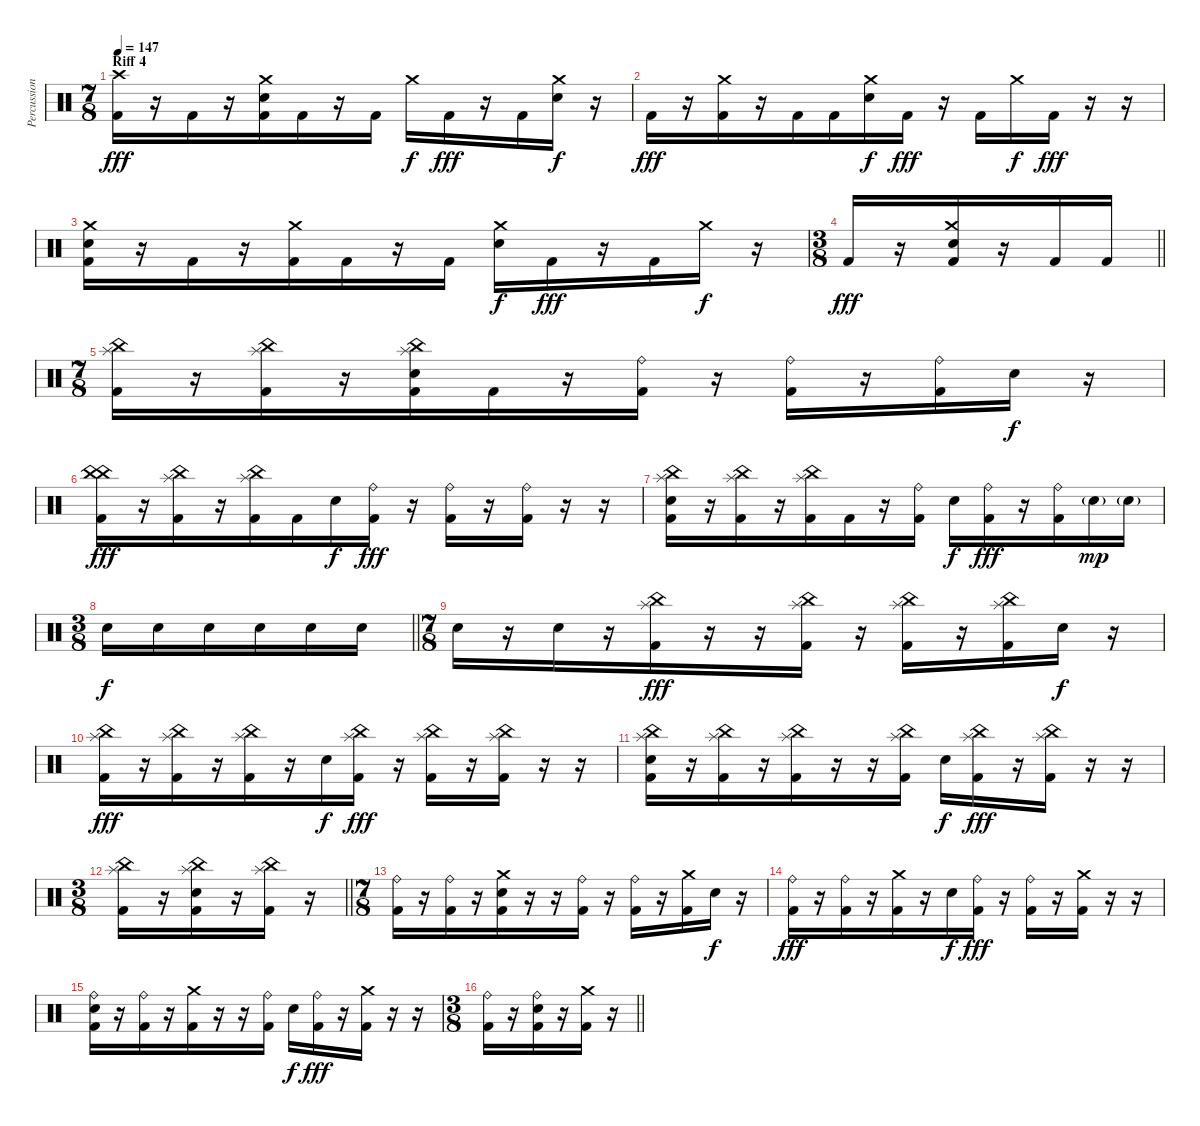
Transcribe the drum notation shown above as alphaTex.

\track ("Percussion" "Percussion") {instrument percussion}
\staff {score}
\articulation defaults
\ts (7 8)
\section ("" "Riff 4")
\tempo 147
\clef neutral
\ks c
("Crash high (hit)" "Kick (hit) 2").16{dy fff} r.16 "Kick (hit) 2".16 r.16 ("Crash medium (hit)" "Electric Snare (hit)" "Kick (hit) 2").16 "Kick (hit) 2".16 r.16 "Kick (hit) 2".16 "Crash medium (hit)".16{dy f} "Kick (hit) 2".16{dy fff} r.16 "Kick (hit) 2".16 ("Crash medium (hit)" "Electric Snare (hit)").16{dy f} r.16 |
"Kick (hit) 2".16{dy fff} r.16 ("Crash medium (hit)" "Kick (hit) 2").16 r.16 "Kick (hit) 2".16 "Kick (hit) 2".16 ("Crash medium (hit)" "Electric Snare (hit)").16{dy f} "Kick (hit) 2".16{dy fff} r.16 "Kick (hit) 2".16 "Crash medium (hit)".16{dy f} "Kick (hit) 2".16{dy fff} r.16 r.16 |
("Crash medium (hit)" "Electric Snare (hit)" "Kick (hit) 2").16 r.16 "Kick (hit) 2".16 r.16 ("Crash medium (hit)" "Kick (hit) 2").16 "Kick (hit) 2".16 r.16 "Kick (hit) 2".16 ("Crash medium (hit)" "Electric Snare (hit)").16{dy f} "Kick (hit) 2".16{dy fff} r.16 "Kick (hit) 2".16 "Crash medium (hit)".16{dy f} r.16 |
\ts (3 8)
\barLineRight lightlight "Kick (hit) 2".16{dy fff}
r.16 ("Crash medium (hit)" "Electric Snare (hit)" "Kick (hit) 2").16 r.16 "Kick (hit) 2".16 "Kick (hit) 2".16 |
\ts (7 8)
("Splash (hit)" "China (hit)" "Kick (hit) 2").16 r.16 ("Splash (hit)" "China (hit)" "Kick (hit) 2").16 r.16 ("Splash (hit)" "China (hit)" "Electric Snare (hit)" "Kick (hit) 2").16 "Kick (hit) 2".16 r.16 ("Ride (bell)" "Kick (hit) 2").16 r.16 ("Ride (bell)" "Kick (hit) 2").16 r.16 ("Ride (bell)" "Kick (hit) 2").16 "Electric Snare (hit)".16{dy f} r.16 |
("China (hit)" "China (hit)" "Kick (hit) 2").16{dy fff} r.16 ("Splash (hit)" "China (hit)" "Kick (hit) 2").16 r.16 ("Splash (hit)" "China (hit)" "Kick (hit) 2").16 "Kick (hit) 2".16 "Electric Snare (hit)".16{dy f} ("Ride (bell)" "Kick (hit) 2").16{dy fff} r.16 ("Ride (bell)" "Kick (hit) 2").16 r.16 ("Ride (bell)" "Kick (hit) 2").16 r.16 r.16 |
("Splash (hit)" "China (hit)" "Electric Snare (hit)" "Kick (hit) 2").16 r.16 ("Splash (hit)" "China (hit)" "Kick (hit) 2").16 r.16 ("Splash (hit)" "China (hit)" "Kick (hit) 2").16 "Kick (hit) 2".16 r.16 ("Ride (bell)" "Kick (hit) 2").16 "Electric Snare (hit)".16{dy f} ("Ride (bell)" "Kick (hit) 2").16{dy fff} r.16 ("Ride (bell)" "Kick (hit) 2").16 "Electric Snare (hit)"{g}.16{dy mp} "Electric Snare (hit)"{g}.16 |
\ts (3 8)
\barLineRight lightlight "Electric Snare (hit)".16{dy f} "Electric Snare (hit)".16 "Electric Snare (hit)".16 "Electric Snare (hit)".16 "Electric Snare (hit)".16 "Electric Snare (hit)".16
|
\ts (7 8)
"Electric Snare (hit)".16 r.16 "Electric Snare (hit)".16 r.16 ("Splash (hit)" "China (hit)" "Kick (hit) 2").16{dy fff} r.16 r.16 ("Splash (hit)" "China (hit)" "Kick (hit) 2").16 r.16 ("Splash (hit)" "China (hit)" "Kick (hit) 2").16 r.16 ("Splash (hit)" "China (hit)" "Kick (hit) 2").16 "Electric Snare (hit)".16{dy f} r.16 |
("Splash (hit)" "China (hit)" "Kick (hit) 2").16{dy fff} r.16 ("Splash (hit)" "China (hit)" "Kick (hit) 2").16 r.16 ("Splash (hit)" "China (hit)" "Kick (hit) 2").16 r.16 "Electric Snare (hit)".16{dy f} ("Splash (hit)" "China (hit)" "Kick (hit) 2").16{dy fff} r.16 ("Splash (hit)" "China (hit)" "Kick (hit) 2").16 r.16 ("Splash (hit)" "China (hit)" "Kick (hit) 2").16 r.16 r.16 |
("Splash (hit)" "China (hit)" "Electric Snare (hit)" "Kick (hit) 2").16 r.16 ("Splash (hit)" "China (hit)" "Kick (hit) 2").16 r.16 ("Splash (hit)" "China (hit)" "Kick (hit) 2").16 r.16 r.16 ("Splash (hit)" "China (hit)" "Kick (hit) 2").16 "Electric Snare (hit)".16{dy f} ("Splash (hit)" "China (hit)" "Kick (hit) 2").16{dy fff} r.16 ("Splash (hit)" "China (hit)" "Kick (hit) 2").16 r.16 r.16 |
\ts (3 8)
\barLineRight lightlight
("Splash (hit)" "China (hit)" "Kick (hit) 2").16 r.16 ("Splash (hit)" "China (hit)" "Electric Snare (hit)" "Kick (hit) 2").16 r.16 ("Splash (hit)" "China (hit)" "Kick (hit) 2").16 r.16 |
\ts (7 8)
("Ride (bell)" "Kick (hit) 2").16 r.16 ("Ride (bell)" "Kick (hit) 2").16 r.16 ("Crash medium (hit)" "Electric Snare (hit)" "Kick (hit) 2").16 r.16 r.16 ("Ride (bell)" "Kick (hit) 2").16 r.16 ("Ride (bell)" "Kick (hit) 2").16 r.16 ("Crash medium (hit)" "Kick (hit) 2").16 "Electric Snare (hit)".16{dy f} r.16 |
("Ride (bell)" "Kick (hit) 2").16{dy fff} r.16 ("Ride (bell)" "Kick (hit) 2").16 r.16 ("Crash medium (hit)" "Kick (hit) 2").16 r.16 "Electric Snare (hit)".16{dy f} ("Ride (bell)" "Kick (hit) 2").16{dy fff} r.16 ("Ride (bell)" "Kick (hit) 2").16 r.16 ("Crash medium (hit)" "Kick (hit) 2").16 r.16 r.16 |
("Ride (bell)" "Electric Snare (hit)" "Kick (hit) 2").16 r.16 ("Ride (bell)" "Kick (hit) 2").16 r.16 ("Crash medium (hit)" "Kick (hit) 2").16 r.16 r.16 ("Ride (bell)" "Kick (hit) 2").16 "Electric Snare (hit)".16{dy f} ("Ride (bell)" "Kick (hit) 2").16{dy fff} r.16 ("Crash medium (hit)" "Kick (hit) 2").16 r.16 r.16 |
\ts (3 8)
\barLineRight lightlight
("Ride (bell)" "Kick (hit) 2").16 r.16 ("Ride (bell)" "Electric Snare (hit)" "Kick (hit) 2").16 r.16 ("Crash medium (hit)" "Kick (hit) 2").16 r.16
